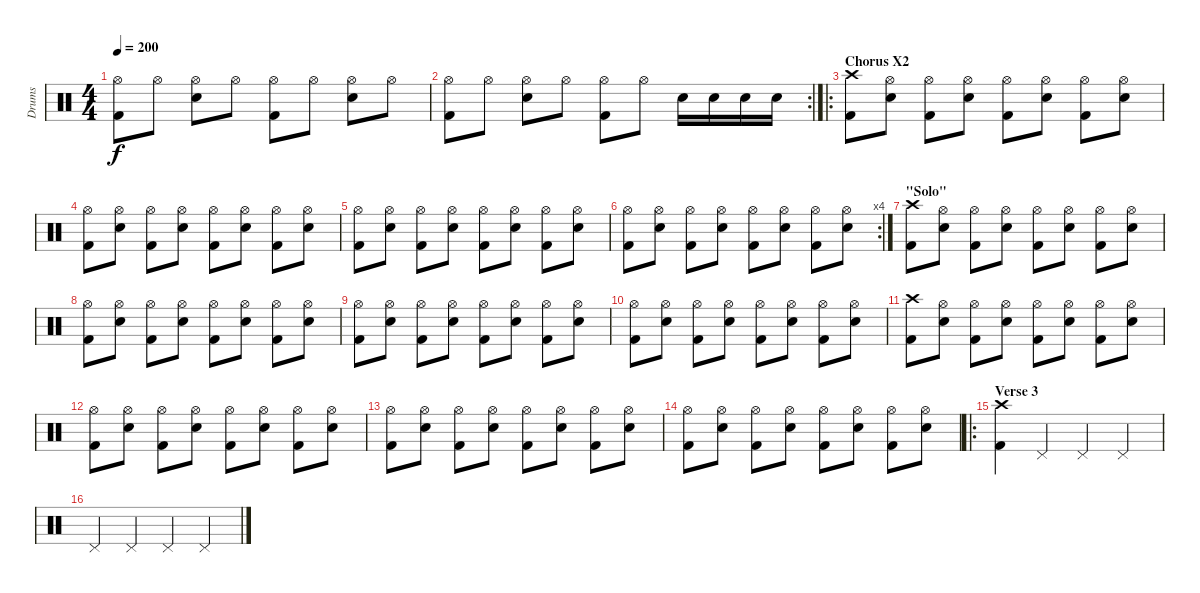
\track ("Drums" "Drums") {instrument percussion}
\staff {score}
\articulation defaults
\ts (4 4)
\tempo 200
\clef neutral
\ks c
("Hi-Hat (open)" "Kick (hit) 2").8{dy f} "Hi-Hat (open)".8 ("Hi-Hat (open)" "Electric Snare (hit)").8 "Hi-Hat (open)".8 ("Hi-Hat (open)" "Kick (hit) 2").8 "Hi-Hat (open)".8 ("Hi-Hat (open)" "Electric Snare (hit)").8 "Hi-Hat (open)".8 |
\rc 2
("Hi-Hat (open)" "Kick (hit) 2").8 "Hi-Hat (open)".8 ("Hi-Hat (open)" "Electric Snare (hit)").8 "Hi-Hat (open)".8 ("Hi-Hat (open)" "Kick (hit) 2").8 "Hi-Hat (open)".8 "Electric Snare (hit)".16 "Electric Snare (hit)".16 "Electric Snare (hit)".16 "Electric Snare (hit)".16 |
\ro
\section ("" "Chorus X2")
("Crash high (hit)" "Kick (hit) 2").8 ("Hi-Hat (open)" "Electric Snare (hit)").8 ("Hi-Hat (open)" "Kick (hit) 2").8 ("Hi-Hat (open)" "Electric Snare (hit)").8 ("Hi-Hat (open)" "Kick (hit) 2").8 ("Hi-Hat (open)" "Electric Snare (hit)").8 ("Hi-Hat (open)" "Kick (hit) 2").8 ("Hi-Hat (open)" "Electric Snare (hit)").8 |
("Hi-Hat (open)" "Kick (hit) 2").8 ("Hi-Hat (open)" "Electric Snare (hit)").8 ("Hi-Hat (open)" "Kick (hit) 2").8 ("Hi-Hat (open)" "Electric Snare (hit)").8 ("Hi-Hat (open)" "Kick (hit) 2").8 ("Hi-Hat (open)" "Electric Snare (hit)").8 ("Hi-Hat (open)" "Kick (hit) 2").8 ("Hi-Hat (open)" "Electric Snare (hit)").8 |
("Hi-Hat (open)" "Kick (hit) 2").8 ("Hi-Hat (open)" "Electric Snare (hit)").8 ("Hi-Hat (open)" "Kick (hit) 2").8 ("Hi-Hat (open)" "Electric Snare (hit)").8 ("Hi-Hat (open)" "Kick (hit) 2").8 ("Hi-Hat (open)" "Electric Snare (hit)").8 ("Hi-Hat (open)" "Kick (hit) 2").8 ("Hi-Hat (open)" "Electric Snare (hit)").8 |
\rc 4
("Hi-Hat (open)" "Kick (hit) 2").8 ("Hi-Hat (open)" "Electric Snare (hit)").8 ("Hi-Hat (open)" "Kick (hit) 2").8 ("Hi-Hat (open)" "Electric Snare (hit)").8 ("Hi-Hat (open)" "Kick (hit) 2").8 ("Hi-Hat (open)" "Electric Snare (hit)").8 ("Hi-Hat (open)" "Kick (hit) 2").8 ("Hi-Hat (open)" "Electric Snare (hit)").8 |
\section ("" "\"Solo\"")
("Crash high (hit)" "Kick (hit) 2").8 ("Hi-Hat (open)" "Electric Snare (hit)").8 ("Hi-Hat (open)" "Kick (hit) 2").8 ("Hi-Hat (open)" "Electric Snare (hit)").8 ("Hi-Hat (open)" "Kick (hit) 2").8 ("Hi-Hat (open)" "Electric Snare (hit)").8 ("Hi-Hat (open)" "Kick (hit) 2").8 ("Hi-Hat (open)" "Electric Snare (hit)").8 |
("Hi-Hat (open)" "Kick (hit) 2").8 ("Hi-Hat (open)" "Electric Snare (hit)").8 ("Hi-Hat (open)" "Kick (hit) 2").8 ("Hi-Hat (open)" "Electric Snare (hit)").8 ("Hi-Hat (open)" "Kick (hit) 2").8 ("Hi-Hat (open)" "Electric Snare (hit)").8 ("Hi-Hat (open)" "Kick (hit) 2").8 ("Hi-Hat (open)" "Electric Snare (hit)").8 |
("Hi-Hat (open)" "Kick (hit) 2").8 ("Hi-Hat (open)" "Electric Snare (hit)").8 ("Hi-Hat (open)" "Kick (hit) 2").8 ("Hi-Hat (open)" "Electric Snare (hit)").8 ("Hi-Hat (open)" "Kick (hit) 2").8 ("Hi-Hat (open)" "Electric Snare (hit)").8 ("Hi-Hat (open)" "Kick (hit) 2").8 ("Hi-Hat (open)" "Electric Snare (hit)").8 |
("Hi-Hat (open)" "Kick (hit) 2").8 ("Hi-Hat (open)" "Electric Snare (hit)").8 ("Hi-Hat (open)" "Kick (hit) 2").8 ("Hi-Hat (open)" "Electric Snare (hit)").8 ("Hi-Hat (open)" "Kick (hit) 2").8 ("Hi-Hat (open)" "Electric Snare (hit)").8 ("Hi-Hat (open)" "Kick (hit) 2").8 ("Hi-Hat (open)" "Electric Snare (hit)").8 |
("Crash high (hit)" "Kick (hit) 2").8 ("Hi-Hat (open)" "Electric Snare (hit)").8 ("Hi-Hat (open)" "Kick (hit) 2").8 ("Hi-Hat (open)" "Electric Snare (hit)").8 ("Hi-Hat (open)" "Kick (hit) 2").8 ("Hi-Hat (open)" "Electric Snare (hit)").8 ("Hi-Hat (open)" "Kick (hit) 2").8 ("Hi-Hat (open)" "Electric Snare (hit)").8 |
("Hi-Hat (open)" "Kick (hit) 2").8 ("Hi-Hat (open)" "Electric Snare (hit)").8 ("Hi-Hat (open)" "Kick (hit) 2").8 ("Hi-Hat (open)" "Electric Snare (hit)").8 ("Hi-Hat (open)" "Kick (hit) 2").8 ("Hi-Hat (open)" "Electric Snare (hit)").8 ("Hi-Hat (open)" "Kick (hit) 2").8 ("Hi-Hat (open)" "Electric Snare (hit)").8 |
("Hi-Hat (open)" "Kick (hit) 2").8 ("Hi-Hat (open)" "Electric Snare (hit)").8 ("Hi-Hat (open)" "Kick (hit) 2").8 ("Hi-Hat (open)" "Electric Snare (hit)").8 ("Hi-Hat (open)" "Kick (hit) 2").8 ("Hi-Hat (open)" "Electric Snare (hit)").8 ("Hi-Hat (open)" "Kick (hit) 2").8 ("Hi-Hat (open)" "Electric Snare (hit)").8 |
("Hi-Hat (open)" "Kick (hit) 2").8 ("Hi-Hat (open)" "Electric Snare (hit)").8 ("Hi-Hat (open)" "Kick (hit) 2").8 ("Hi-Hat (open)" "Electric Snare (hit)").8 ("Hi-Hat (open)" "Kick (hit) 2").8 ("Hi-Hat (open)" "Electric Snare (hit)").8 ("Hi-Hat (open)" "Kick (hit) 2").8 ("Hi-Hat (open)" "Electric Snare (hit)").8 |
\ro
\section ("" "Verse 3")
("Crash high (hit)" "Kick (hit) 2").4 "Pedal Hi-Hat (hit)".4 "Pedal Hi-Hat (hit)".4 "Pedal Hi-Hat (hit)".4 |
"Pedal Hi-Hat (hit)".4 "Pedal Hi-Hat (hit)".4 "Pedal Hi-Hat (hit)".4 "Pedal Hi-Hat (hit)".4
